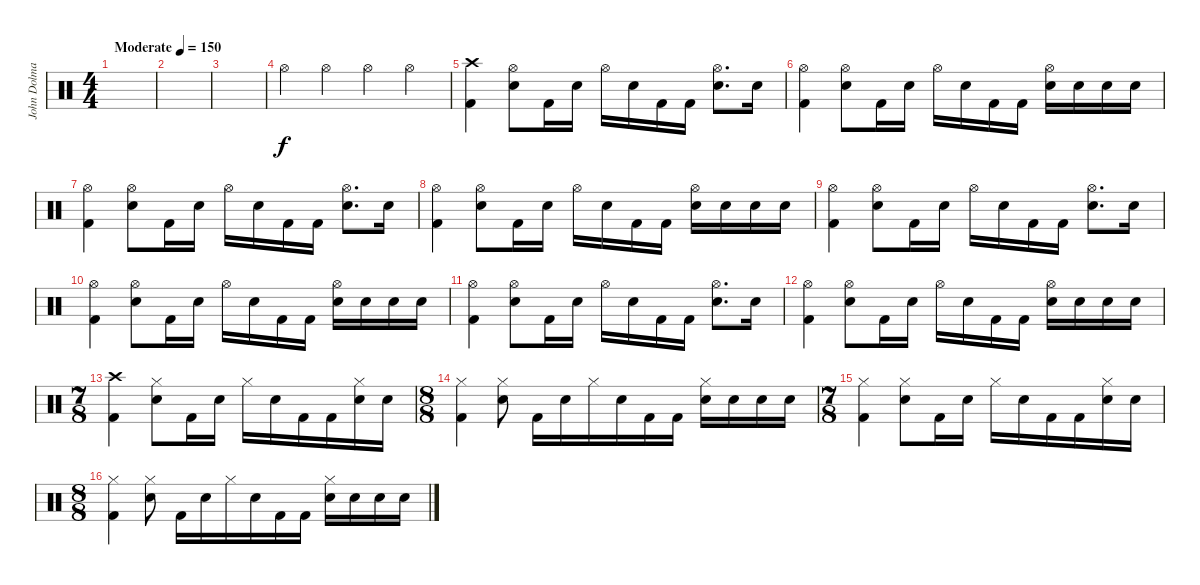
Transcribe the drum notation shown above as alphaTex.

\track ("John Dolmayan" "John Dolma") {instrument percussion}
\staff {score}
\articulation defaults
\ts (4 4)
\tempo (150 "Moderate")
\clef neutral
\ks c
|
|
|
"Hi-Hat (open)".4 "Hi-Hat (open)".4 "Hi-Hat (open)".4 "Hi-Hat (open)".4 |
("Crash high (hit)" "Kick (hit) 2").4 ("Hi-Hat (open)" "Electric Snare (hit)").8 "Kick (hit) 2".16 "Electric Snare (hit)".16 "Hi-Hat (open)".16 "Electric Snare (hit)".16 "Kick (hit) 2".16 "Kick (hit) 2".16 ("Hi-Hat (open)" "Electric Snare (hit)").8{d} "Electric Snare (hit)".16 |
("Hi-Hat (open)" "Kick (hit) 2").4 ("Hi-Hat (open)" "Electric Snare (hit)").8 "Kick (hit) 2".16 "Electric Snare (hit)".16 "Hi-Hat (open)".16 "Electric Snare (hit)".16 "Kick (hit) 2".16 "Kick (hit) 2".16 ("Hi-Hat (open)" "Electric Snare (hit)").16 "Electric Snare (hit)".16 "Electric Snare (hit)".16 "Electric Snare (hit)".16 |
("Hi-Hat (open)" "Kick (hit) 2").4 ("Hi-Hat (open)" "Electric Snare (hit)").8 "Kick (hit) 2".16 "Electric Snare (hit)".16 "Hi-Hat (open)".16 "Electric Snare (hit)".16 "Kick (hit) 2".16 "Kick (hit) 2".16 ("Hi-Hat (open)" "Electric Snare (hit)").8{d} "Electric Snare (hit)".16 |
("Hi-Hat (open)" "Kick (hit) 2").4 ("Hi-Hat (open)" "Electric Snare (hit)").8 "Kick (hit) 2".16 "Electric Snare (hit)".16 "Hi-Hat (open)".16 "Electric Snare (hit)".16 "Kick (hit) 2".16 "Kick (hit) 2".16 ("Hi-Hat (open)" "Electric Snare (hit)").16 "Electric Snare (hit)".16 "Electric Snare (hit)".16 "Electric Snare (hit)".16 |
("Hi-Hat (open)" "Kick (hit) 2").4 ("Hi-Hat (open)" "Electric Snare (hit)").8 "Kick (hit) 2".16 "Electric Snare (hit)".16 "Hi-Hat (open)".16 "Electric Snare (hit)".16 "Kick (hit) 2".16 "Kick (hit) 2".16 ("Hi-Hat (open)" "Electric Snare (hit)").8{d} "Electric Snare (hit)".16 |
("Hi-Hat (open)" "Kick (hit) 2").4 ("Hi-Hat (open)" "Electric Snare (hit)").8 "Kick (hit) 2".16 "Electric Snare (hit)".16 "Hi-Hat (open)".16 "Electric Snare (hit)".16 "Kick (hit) 2".16 "Kick (hit) 2".16 ("Hi-Hat (open)" "Electric Snare (hit)").16 "Electric Snare (hit)".16 "Electric Snare (hit)".16 "Electric Snare (hit)".16 |
("Hi-Hat (open)" "Kick (hit) 2").4 ("Hi-Hat (open)" "Electric Snare (hit)").8 "Kick (hit) 2".16 "Electric Snare (hit)".16 "Hi-Hat (open)".16 "Electric Snare (hit)".16 "Kick (hit) 2".16 "Kick (hit) 2".16 ("Hi-Hat (open)" "Electric Snare (hit)").8{d} "Electric Snare (hit)".16 |
("Hi-Hat (open)" "Kick (hit) 2").4 ("Hi-Hat (open)" "Electric Snare (hit)").8 "Kick (hit) 2".16 "Electric Snare (hit)".16 "Hi-Hat (open)".16 "Electric Snare (hit)".16 "Kick (hit) 2".16 "Kick (hit) 2".16 ("Hi-Hat (open)" "Electric Snare (hit)").16 "Electric Snare (hit)".16 "Electric Snare (hit)".16 "Electric Snare (hit)".16 |
\ts (7 8)
("Crash high (hit)" "Kick (hit) 2").4 ("Hi-Hat (closed)" "Electric Snare (hit)").8 "Kick (hit) 2".16 "Electric Snare (hit)".16 "Hi-Hat (closed)".16 "Electric Snare (hit)".16 "Kick (hit) 2".16 "Kick (hit) 2".16 ("Hi-Hat (closed)" "Electric Snare (hit)").16 "Electric Snare (hit)".16 |
\ts (8 8)
("Hi-Hat (closed)" "Kick (hit) 2").4 ("Hi-Hat (closed)" "Electric Snare (hit)").8 "Kick (hit) 2".16 "Electric Snare (hit)".16 "Hi-Hat (closed)".16 "Electric Snare (hit)".16 "Kick (hit) 2".16 "Kick (hit) 2".16 ("Hi-Hat (closed)" "Electric Snare (hit)").16 "Electric Snare (hit)".16 "Electric Snare (hit)".16 "Electric Snare (hit)".16 |
\ts (7 8)
("Hi-Hat (closed)" "Kick (hit) 2").4 ("Hi-Hat (closed)" "Electric Snare (hit)").8 "Kick (hit) 2".16 "Electric Snare (hit)".16 "Hi-Hat (closed)".16 "Electric Snare (hit)".16 "Kick (hit) 2".16 "Kick (hit) 2".16 ("Hi-Hat (closed)" "Electric Snare (hit)").16 "Electric Snare (hit)".16 |
\ts (8 8)
("Hi-Hat (closed)" "Kick (hit) 2").4 ("Hi-Hat (closed)" "Electric Snare (hit)").8 "Kick (hit) 2".16 "Electric Snare (hit)".16 "Hi-Hat (closed)".16 "Electric Snare (hit)".16 "Kick (hit) 2".16 "Kick (hit) 2".16 ("Hi-Hat (closed)" "Electric Snare (hit)").16 "Electric Snare (hit)".16 "Electric Snare (hit)".16 "Electric Snare (hit)".16
